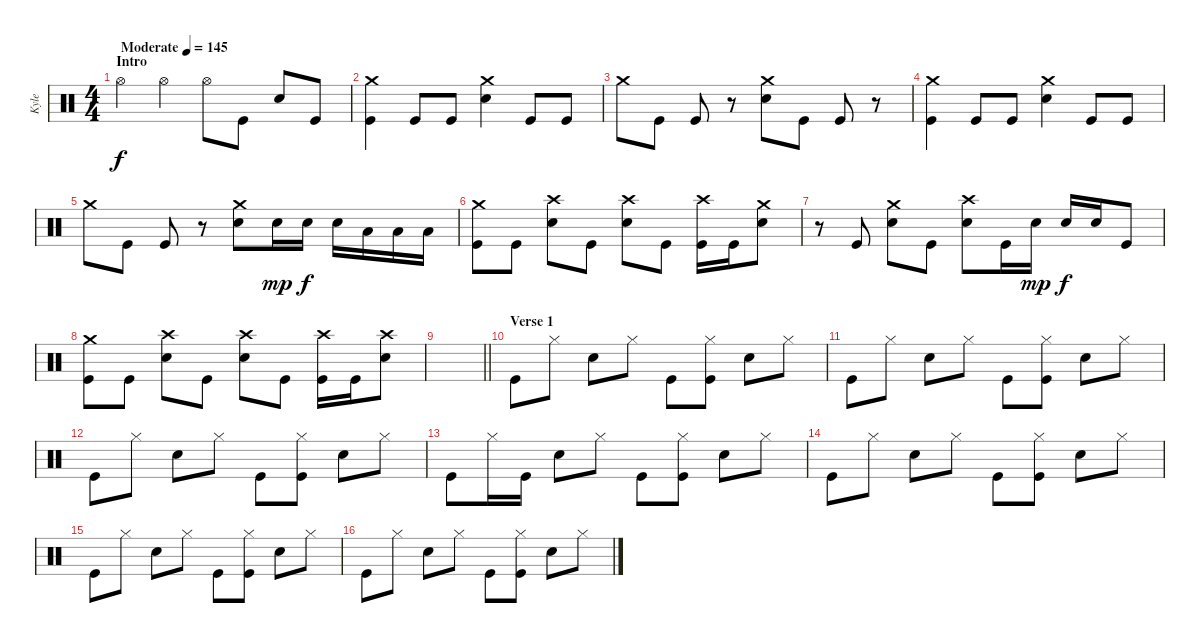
\track ("Kyle" "Kyle") {instrument percussion}
\staff {score}
\articulation defaults
\ts (4 4)
\section ("" "Intro")
\tempo (145 "Moderate")
\clef neutral
\ks c "Hi-Hat (open)".4{dy f} "Hi-Hat (open)".4 "Hi-Hat (open)".8 "Kick (hit)".8 "Electric Snare (hit)".8 "Kick (hit)".8
|
("Crash medium (hit)" "Kick (hit)").4 "Kick (hit)".8 "Kick (hit)".8 ("Crash medium (hit)" "Electric Snare (hit)").4 "Kick (hit)".8 "Kick (hit)".8 |
"Crash medium (hit)".8 "Kick (hit)".8 "Kick (hit)".8 r.8 ("Crash medium (hit)" "Electric Snare (hit)").8 "Kick (hit)".8 "Kick (hit)".8 r.8 |
("Crash medium (hit)" "Kick (hit)").4 "Kick (hit)".8 "Kick (hit)".8 ("Crash medium (hit)" "Electric Snare (hit)").4 "Kick (hit)".8 "Kick (hit)".8 |
"Crash medium (hit)".8 "Kick (hit)".8 "Kick (hit)".8 r.8 ("Crash medium (hit)" "Electric Snare (hit)").8 "Electric Snare (hit)".16{dy mp} "Electric Snare (hit)".16{dy f} "Electric Snare (hit)".16 "Low Floor Tom (hit)".16 "Low Floor Tom (hit)".16 "Low Floor Tom (hit)".16 |
("Crash medium (hit)" "Kick (hit)").8 "Kick (hit)".8 ("Crash high (hit)" "Electric Snare (hit)").8 "Kick (hit)".8 ("Crash high (hit)" "Electric Snare (hit)").8 "Kick (hit)".8 ("Crash high (hit)" "Kick (hit)").16 "Kick (hit)".16 ("Crash medium (hit)" "Electric Snare (hit)").8 |
r.8 "Kick (hit)".8 ("Crash medium (hit)" "Electric Snare (hit)").8 "Kick (hit)".8 ("Crash high (hit)" "Electric Snare (hit)").8 "Kick (hit)".16 "Electric Snare (hit)".16{dy mp} "Electric Snare (hit)".16{dy f} "Electric Snare (hit)".16 "Kick (hit)".8 |
("Crash medium (hit)" "Kick (hit)").8 "Kick (hit)".8 ("Crash high (hit)" "Electric Snare (hit)").8 "Kick (hit)".8 ("Crash high (hit)" "Electric Snare (hit)").8 "Kick (hit)".8 ("Crash high (hit)" "Kick (hit)").16 "Kick (hit)".16 ("Crash high (hit)" "Electric Snare (hit)").8 |
\barLineRight lightlight
|
\section ("" "Verse 1")
"Kick (hit)".8 "Hi-Hat (closed)".8 "Electric Snare (hit)".8 "Hi-Hat (closed)".8 "Kick (hit)".8 ("Hi-Hat (closed)" "Kick (hit)").8 "Electric Snare (hit)".8 "Hi-Hat (closed)".8 |
"Kick (hit)".8 "Hi-Hat (closed)".8 "Electric Snare (hit)".8 "Hi-Hat (closed)".8 "Kick (hit)".8 ("Hi-Hat (closed)" "Kick (hit)").8 "Electric Snare (hit)".8 "Hi-Hat (closed)".8 |
"Kick (hit)".8 "Hi-Hat (closed)".8 "Electric Snare (hit)".8 "Hi-Hat (closed)".8 "Kick (hit)".8 ("Hi-Hat (closed)" "Kick (hit)").8 "Electric Snare (hit)".8 "Hi-Hat (closed)".8 |
"Kick (hit)".8 "Hi-Hat (closed)".16 "Kick (hit)".16 "Electric Snare (hit)".8 "Hi-Hat (closed)".8 "Kick (hit)".8 ("Hi-Hat (closed)" "Kick (hit)").8 "Electric Snare (hit)".8 "Hi-Hat (closed)".8 |
"Kick (hit)".8 "Hi-Hat (closed)".8 "Electric Snare (hit)".8 "Hi-Hat (closed)".8 "Kick (hit)".8 ("Hi-Hat (closed)" "Kick (hit)").8 "Electric Snare (hit)".8 "Hi-Hat (closed)".8 |
"Kick (hit)".8 "Hi-Hat (closed)".8 "Electric Snare (hit)".8 "Hi-Hat (closed)".8 "Kick (hit)".8 ("Hi-Hat (closed)" "Kick (hit)").8 "Electric Snare (hit)".8 "Hi-Hat (closed)".8 |
"Kick (hit)".8 "Hi-Hat (closed)".8 "Electric Snare (hit)".8 "Hi-Hat (closed)".8 "Kick (hit)".8 ("Hi-Hat (closed)" "Kick (hit)").8 "Electric Snare (hit)".8 "Hi-Hat (closed)".8
